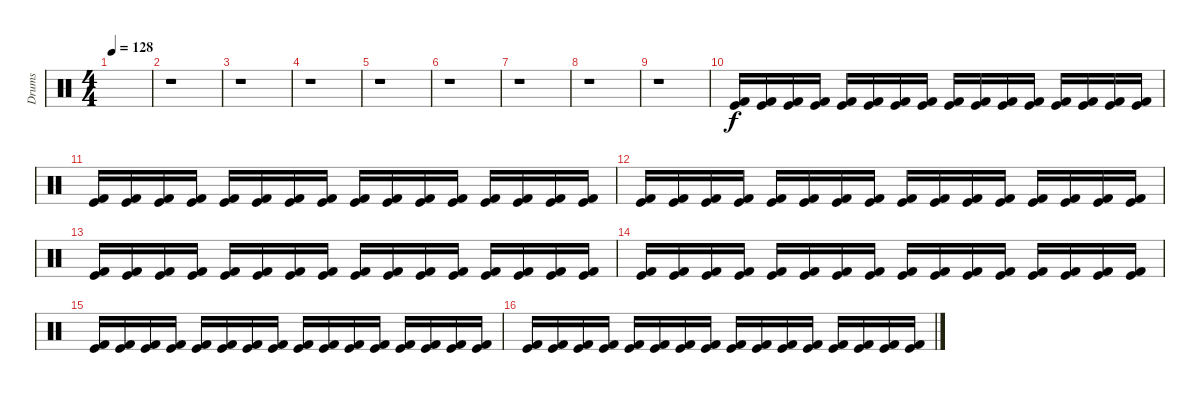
\track ("Drums" "Drums") {instrument percussion}
\staff {score}
\articulation defaults
\ts (4 4)
\tempo 128
\clef neutral
\ks c
|
r.1 |
r.1 |
r.1 |
r.1 |
r.1 |
r.1 |
r.1 |
r.1 |
("Kick (hit)" "Kick (hit) 2").16{volume 10} ("Kick (hit)" "Kick (hit) 2").16 ("Kick (hit)" "Kick (hit) 2").16 ("Kick (hit)" "Kick (hit) 2").16 ("Kick (hit)" "Kick (hit) 2").16 ("Kick (hit)" "Kick (hit) 2").16 ("Kick (hit)" "Kick (hit) 2").16 ("Kick (hit)" "Kick (hit) 2").16 ("Kick (hit)" "Kick (hit) 2").16 ("Kick (hit)" "Kick (hit) 2").16 ("Kick (hit)" "Kick (hit) 2").16 ("Kick (hit)" "Kick (hit) 2").16 ("Kick (hit)" "Kick (hit) 2").16 ("Kick (hit)" "Kick (hit) 2").16 ("Kick (hit)" "Kick (hit) 2").16 ("Kick (hit)" "Kick (hit) 2").16 |
("Kick (hit)" "Kick (hit) 2").16{volume 10} ("Kick (hit)" "Kick (hit) 2").16 ("Kick (hit)" "Kick (hit) 2").16 ("Kick (hit)" "Kick (hit) 2").16 ("Kick (hit)" "Kick (hit) 2").16 ("Kick (hit)" "Kick (hit) 2").16 ("Kick (hit)" "Kick (hit) 2").16 ("Kick (hit)" "Kick (hit) 2").16 ("Kick (hit)" "Kick (hit) 2").16 ("Kick (hit)" "Kick (hit) 2").16 ("Kick (hit)" "Kick (hit) 2").16 ("Kick (hit)" "Kick (hit) 2").16 ("Kick (hit)" "Kick (hit) 2").16 ("Kick (hit)" "Kick (hit) 2").16 ("Kick (hit)" "Kick (hit) 2").16 ("Kick (hit)" "Kick (hit) 2").16 |
("Kick (hit)" "Kick (hit) 2").16{volume 10} ("Kick (hit)" "Kick (hit) 2").16 ("Kick (hit)" "Kick (hit) 2").16 ("Kick (hit)" "Kick (hit) 2").16 ("Kick (hit)" "Kick (hit) 2").16 ("Kick (hit)" "Kick (hit) 2").16 ("Kick (hit)" "Kick (hit) 2").16 ("Kick (hit)" "Kick (hit) 2").16 ("Kick (hit)" "Kick (hit) 2").16 ("Kick (hit)" "Kick (hit) 2").16 ("Kick (hit)" "Kick (hit) 2").16 ("Kick (hit)" "Kick (hit) 2").16 ("Kick (hit)" "Kick (hit) 2").16 ("Kick (hit)" "Kick (hit) 2").16 ("Kick (hit)" "Kick (hit) 2").16 ("Kick (hit)" "Kick (hit) 2").16 |
("Kick (hit)" "Kick (hit) 2").16{volume 10} ("Kick (hit)" "Kick (hit) 2").16 ("Kick (hit)" "Kick (hit) 2").16 ("Kick (hit)" "Kick (hit) 2").16 ("Kick (hit)" "Kick (hit) 2").16 ("Kick (hit)" "Kick (hit) 2").16 ("Kick (hit)" "Kick (hit) 2").16 ("Kick (hit)" "Kick (hit) 2").16 ("Kick (hit)" "Kick (hit) 2").16 ("Kick (hit)" "Kick (hit) 2").16 ("Kick (hit)" "Kick (hit) 2").16 ("Kick (hit)" "Kick (hit) 2").16 ("Kick (hit)" "Kick (hit) 2").16 ("Kick (hit)" "Kick (hit) 2").16 ("Kick (hit)" "Kick (hit) 2").16 ("Kick (hit)" "Kick (hit) 2").16 |
("Kick (hit)" "Kick (hit) 2").16{volume 10} ("Kick (hit)" "Kick (hit) 2").16 ("Kick (hit)" "Kick (hit) 2").16 ("Kick (hit)" "Kick (hit) 2").16 ("Kick (hit)" "Kick (hit) 2").16 ("Kick (hit)" "Kick (hit) 2").16 ("Kick (hit)" "Kick (hit) 2").16 ("Kick (hit)" "Kick (hit) 2").16 ("Kick (hit)" "Kick (hit) 2").16 ("Kick (hit)" "Kick (hit) 2").16 ("Kick (hit)" "Kick (hit) 2").16 ("Kick (hit)" "Kick (hit) 2").16 ("Kick (hit)" "Kick (hit) 2").16 ("Kick (hit)" "Kick (hit) 2").16 ("Kick (hit)" "Kick (hit) 2").16 ("Kick (hit)" "Kick (hit) 2").16 |
("Kick (hit)" "Kick (hit) 2").16{volume 10} ("Kick (hit)" "Kick (hit) 2").16 ("Kick (hit)" "Kick (hit) 2").16 ("Kick (hit)" "Kick (hit) 2").16 ("Kick (hit)" "Kick (hit) 2").16 ("Kick (hit)" "Kick (hit) 2").16 ("Kick (hit)" "Kick (hit) 2").16 ("Kick (hit)" "Kick (hit) 2").16 ("Kick (hit)" "Kick (hit) 2").16 ("Kick (hit)" "Kick (hit) 2").16 ("Kick (hit)" "Kick (hit) 2").16 ("Kick (hit)" "Kick (hit) 2").16 ("Kick (hit)" "Kick (hit) 2").16 ("Kick (hit)" "Kick (hit) 2").16 ("Kick (hit)" "Kick (hit) 2").16 ("Kick (hit)" "Kick (hit) 2").16 |
("Kick (hit)" "Kick (hit) 2").16{volume 10} ("Kick (hit)" "Kick (hit) 2").16 ("Kick (hit)" "Kick (hit) 2").16 ("Kick (hit)" "Kick (hit) 2").16 ("Kick (hit)" "Kick (hit) 2").16 ("Kick (hit)" "Kick (hit) 2").16 ("Kick (hit)" "Kick (hit) 2").16 ("Kick (hit)" "Kick (hit) 2").16 ("Kick (hit)" "Kick (hit) 2").16 ("Kick (hit)" "Kick (hit) 2").16 ("Kick (hit)" "Kick (hit) 2").16 ("Kick (hit)" "Kick (hit) 2").16 ("Kick (hit)" "Kick (hit) 2").16 ("Kick (hit)" "Kick (hit) 2").16 ("Kick (hit)" "Kick (hit) 2").16 ("Kick (hit)" "Kick (hit) 2").16
